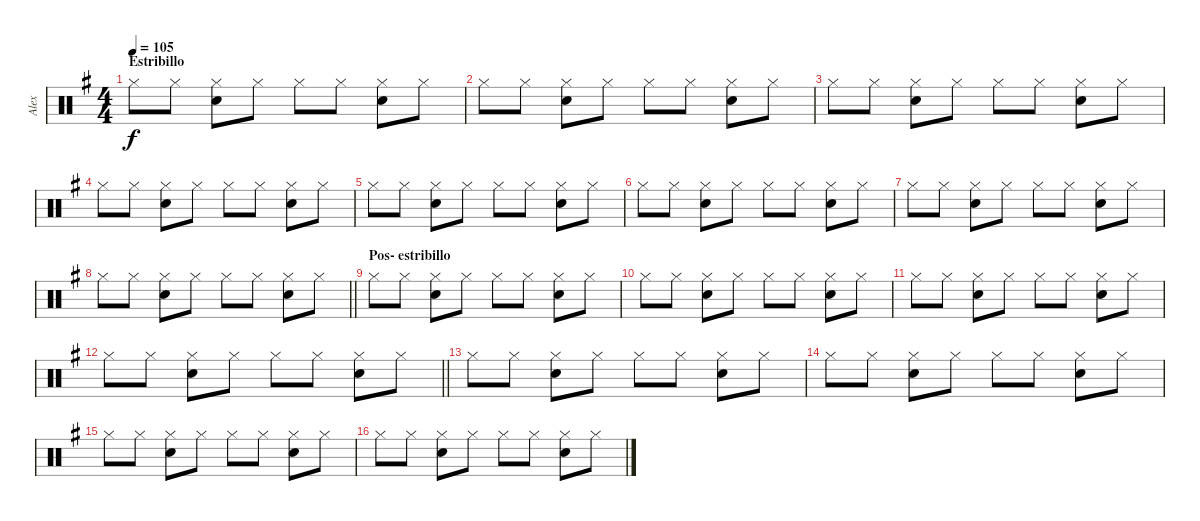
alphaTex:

\track ("Alex" "Alex") {instrument percussion}
\staff {score}
\articulation defaults
\ts (4 4)
\section ("" "Estribillo")
\tempo 105
\clef neutral
\ks g "Hi-Hat (closed)".8{dy f} "Hi-Hat (closed)".8
("Hi-Hat (closed)" "Snare (hit) 2").8 "Hi-Hat (closed)".8 "Hi-Hat (closed)".8 "Hi-Hat (closed)".8 ("Hi-Hat (closed)" "Snare (hit) 2").8 "Hi-Hat (closed)".8 |
"Hi-Hat (closed)".8 "Hi-Hat (closed)".8 ("Hi-Hat (closed)" "Snare (hit) 2").8 "Hi-Hat (closed)".8 "Hi-Hat (closed)".8 "Hi-Hat (closed)".8 ("Hi-Hat (closed)" "Snare (hit) 2").8 "Hi-Hat (closed)".8 |
"Hi-Hat (closed)".8 "Hi-Hat (closed)".8 ("Hi-Hat (closed)" "Snare (hit) 2").8 "Hi-Hat (closed)".8 "Hi-Hat (closed)".8 "Hi-Hat (closed)".8 ("Hi-Hat (closed)" "Snare (hit) 2").8 "Hi-Hat (closed)".8 |
"Hi-Hat (closed)".8 "Hi-Hat (closed)".8 ("Hi-Hat (closed)" "Snare (hit) 2").8 "Hi-Hat (closed)".8 "Hi-Hat (closed)".8 "Hi-Hat (closed)".8 ("Hi-Hat (closed)" "Snare (hit) 2").8 "Hi-Hat (closed)".8 |
"Hi-Hat (closed)".8 "Hi-Hat (closed)".8 ("Hi-Hat (closed)" "Snare (hit) 2").8 "Hi-Hat (closed)".8 "Hi-Hat (closed)".8 "Hi-Hat (closed)".8 ("Hi-Hat (closed)" "Snare (hit) 2").8 "Hi-Hat (closed)".8 |
"Hi-Hat (closed)".8 "Hi-Hat (closed)".8 ("Hi-Hat (closed)" "Snare (hit) 2").8 "Hi-Hat (closed)".8 "Hi-Hat (closed)".8 "Hi-Hat (closed)".8 ("Hi-Hat (closed)" "Snare (hit) 2").8 "Hi-Hat (closed)".8 |
"Hi-Hat (closed)".8 "Hi-Hat (closed)".8 ("Hi-Hat (closed)" "Snare (hit) 2").8 "Hi-Hat (closed)".8 "Hi-Hat (closed)".8 "Hi-Hat (closed)".8 ("Hi-Hat (closed)" "Snare (hit) 2").8 "Hi-Hat (closed)".8 |
\barLineRight lightlight "Hi-Hat (closed)".8 "Hi-Hat (closed)".8
("Hi-Hat (closed)" "Snare (hit) 2").8 "Hi-Hat (closed)".8 "Hi-Hat (closed)".8 "Hi-Hat (closed)".8 ("Hi-Hat (closed)" "Snare (hit) 2").8 "Hi-Hat (closed)".8 |
\section ("" "Pos- estribillo")
"Hi-Hat (closed)".8 "Hi-Hat (closed)".8 ("Hi-Hat (closed)" "Snare (hit) 2").8 "Hi-Hat (closed)".8 "Hi-Hat (closed)".8 "Hi-Hat (closed)".8 ("Hi-Hat (closed)" "Snare (hit) 2").8 "Hi-Hat (closed)".8 |
"Hi-Hat (closed)".8 "Hi-Hat (closed)".8 ("Hi-Hat (closed)" "Snare (hit) 2").8 "Hi-Hat (closed)".8 "Hi-Hat (closed)".8 "Hi-Hat (closed)".8 ("Hi-Hat (closed)" "Snare (hit) 2").8 "Hi-Hat (closed)".8 |
"Hi-Hat (closed)".8 "Hi-Hat (closed)".8 ("Hi-Hat (closed)" "Snare (hit) 2").8 "Hi-Hat (closed)".8 "Hi-Hat (closed)".8 "Hi-Hat (closed)".8 ("Hi-Hat (closed)" "Snare (hit) 2").8 "Hi-Hat (closed)".8 |
\barLineRight lightlight "Hi-Hat (closed)".8 "Hi-Hat (closed)".8
("Hi-Hat (closed)" "Snare (hit) 2").8 "Hi-Hat (closed)".8 "Hi-Hat (closed)".8 "Hi-Hat (closed)".8 ("Hi-Hat (closed)" "Snare (hit) 2").8 "Hi-Hat (closed)".8 |
"Hi-Hat (closed)".8 "Hi-Hat (closed)".8 ("Hi-Hat (closed)" "Snare (hit) 2").8 "Hi-Hat (closed)".8 "Hi-Hat (closed)".8 "Hi-Hat (closed)".8 ("Hi-Hat (closed)" "Snare (hit) 2").8 "Hi-Hat (closed)".8 |
"Hi-Hat (closed)".8 "Hi-Hat (closed)".8 ("Hi-Hat (closed)" "Snare (hit) 2").8 "Hi-Hat (closed)".8 "Hi-Hat (closed)".8 "Hi-Hat (closed)".8 ("Hi-Hat (closed)" "Snare (hit) 2").8 "Hi-Hat (closed)".8 |
"Hi-Hat (closed)".8 "Hi-Hat (closed)".8 ("Hi-Hat (closed)" "Snare (hit) 2").8 "Hi-Hat (closed)".8 "Hi-Hat (closed)".8 "Hi-Hat (closed)".8 ("Hi-Hat (closed)" "Snare (hit) 2").8 "Hi-Hat (closed)".8 |
"Hi-Hat (closed)".8 "Hi-Hat (closed)".8 ("Hi-Hat (closed)" "Snare (hit) 2").8 "Hi-Hat (closed)".8 "Hi-Hat (closed)".8 "Hi-Hat (closed)".8 ("Hi-Hat (closed)" "Snare (hit) 2").8 "Hi-Hat (closed)".8
